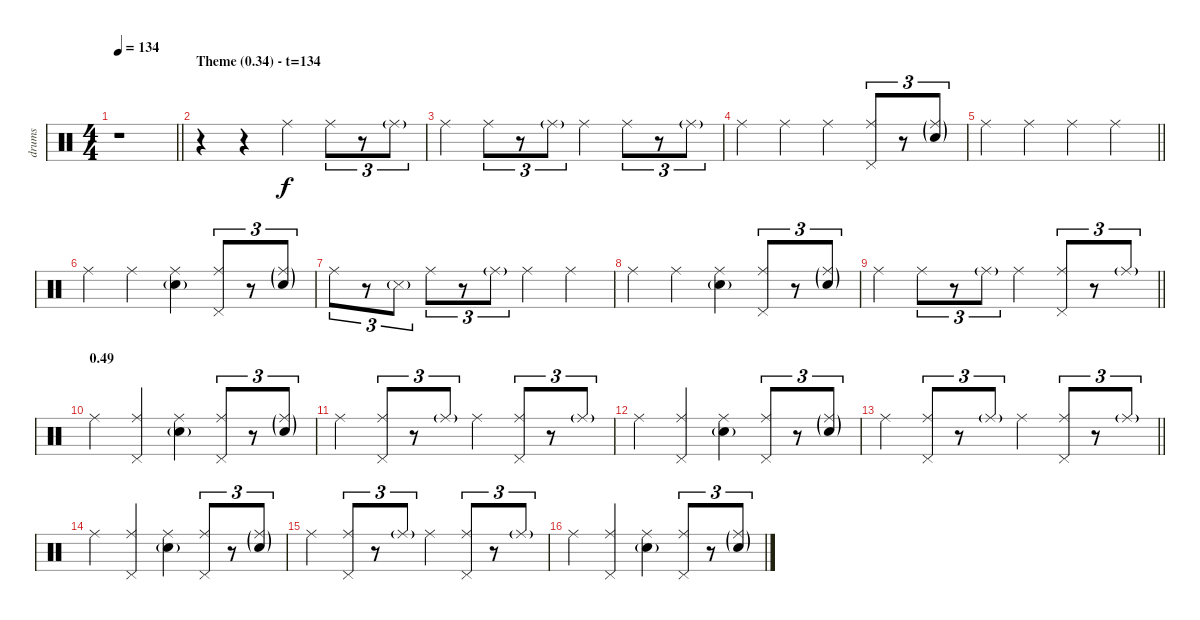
\track ("drums" "drums") {instrument percussion}
\staff {score}
\articulation defaults
\ts (4 4)
\tempo 134
\clef neutral
\barLineRight lightlight
\ks c
r.1{dy f} |
\section ("" "Theme (0.34) - t=134")
r.4 r.4 "Ride (middle)".4 "Ride (middle)".8{tu (3 2)} r.8{tu (3 2)} "Ride (middle)"{g}.8{tu (3 2)} |
"Ride (middle)".4 "Ride (middle)".8{tu (3 2)} r.8{tu (3 2)} "Ride (middle)"{g}.8{tu (3 2)} "Ride (middle)".4 "Ride (middle)".8{tu (3 2)} r.8{tu (3 2)} "Ride (middle)"{g}.8{tu (3 2)} |
"Ride (middle)".4 "Ride (middle)".4 "Ride (middle)".4 ("Ride (middle)" "Pedal Hi-Hat (hit)").8{tu (3 2)} r.8{tu (3 2)} ("Ride (middle)"{g} "Electric Snare (hit)"{g}).8{tu (3 2)} |
\barLineRight lightlight "Ride (middle)".4 "Ride (middle)".4 "Ride (middle)".4 "Ride (middle)".4
|
"Ride (middle)".4 "Ride (middle)".4 ("Ride (middle)" "Electric Snare (hit)"{g}).4 ("Ride (middle)" "Pedal Hi-Hat (hit)").8{tu (3 2)} r.8{tu (3 2)} ("Ride (middle)"{g} "Electric Snare (hit)"{g}).8{tu (3 2)} |
"Ride (middle)".8{tu (3 2)} r.8{tu (3 2)} "Snare (side stick) 3"{g}.8{tu (3 2)} "Ride (middle)".8{tu (3 2)} r.8{tu (3 2)} "Ride (middle)"{g}.8{tu (3 2)} "Ride (middle)".4 "Ride (middle)".4 |
"Ride (middle)".4 "Ride (middle)".4 ("Ride (middle)" "Electric Snare (hit)"{g}).4 ("Ride (middle)" "Pedal Hi-Hat (hit)").8{tu (3 2)} r.8{tu (3 2)} ("Ride (middle)"{g} "Electric Snare (hit)"{g}).8{tu (3 2)} |
\barLineRight lightlight "Ride (middle)".4 "Ride (middle)".8{tu (3 2)}
r.8{tu (3 2)} "Ride (middle)"{g}.8{tu (3 2)} "Ride (middle)".4 ("Ride (middle)" "Pedal Hi-Hat (hit)").8{tu (3 2)} r.8{tu (3 2)} "Ride (middle)"{g}.8{tu (3 2)} |
\section ("" "0.49")
"Ride (middle)".4 ("Ride (middle)" "Pedal Hi-Hat (hit)").4 ("Ride (middle)" "Electric Snare (hit)"{g}).4 ("Ride (middle)" "Pedal Hi-Hat (hit)").8{tu (3 2)} r.8{tu (3 2)} ("Ride (middle)"{g} "Electric Snare (hit)"{g}).8{tu (3 2)} |
"Ride (middle)".4 ("Ride (middle)" "Pedal Hi-Hat (hit)").8{tu (3 2)} r.8{tu (3 2)} "Ride (middle)"{g}.8{tu (3 2)} "Ride (middle)".4 ("Ride (middle)" "Pedal Hi-Hat (hit)").8{tu (3 2)} r.8{tu (3 2)} "Ride (middle)"{g}.8{tu (3 2)} |
"Ride (middle)".4 ("Ride (middle)" "Pedal Hi-Hat (hit)").4 ("Ride (middle)" "Electric Snare (hit)"{g}).4 ("Ride (middle)" "Pedal Hi-Hat (hit)").8{tu (3 2)} r.8{tu (3 2)} ("Ride (middle)"{g} "Electric Snare (hit)"{g}).8{tu (3 2)} |
\barLineRight lightlight "Ride (middle)".4
("Ride (middle)" "Pedal Hi-Hat (hit)").8{tu (3 2)} r.8{tu (3 2)} "Ride (middle)"{g}.8{tu (3 2)} "Ride (middle)".4 ("Ride (middle)" "Pedal Hi-Hat (hit)").8{tu (3 2)} r.8{tu (3 2)} "Ride (middle)"{g}.8{tu (3 2)} |
"Ride (middle)".4 ("Ride (middle)" "Pedal Hi-Hat (hit)").4 ("Ride (middle)" "Electric Snare (hit)"{g}).4 ("Ride (middle)" "Pedal Hi-Hat (hit)").8{tu (3 2)} r.8{tu (3 2)} ("Ride (middle)"{g} "Electric Snare (hit)"{g}).8{tu (3 2)} |
"Ride (middle)".4 ("Ride (middle)" "Pedal Hi-Hat (hit)").8{tu (3 2)} r.8{tu (3 2)} "Ride (middle)"{g}.8{tu (3 2)} "Ride (middle)".4 ("Ride (middle)" "Pedal Hi-Hat (hit)").8{tu (3 2)} r.8{tu (3 2)} "Ride (middle)"{g}.8{tu (3 2)} |
"Ride (middle)".4 ("Ride (middle)" "Pedal Hi-Hat (hit)").4 ("Ride (middle)" "Electric Snare (hit)"{g}).4 ("Ride (middle)" "Pedal Hi-Hat (hit)").8{tu (3 2)} r.8{tu (3 2)} ("Ride (middle)"{g} "Electric Snare (hit)"{g}).8{tu (3 2)}
